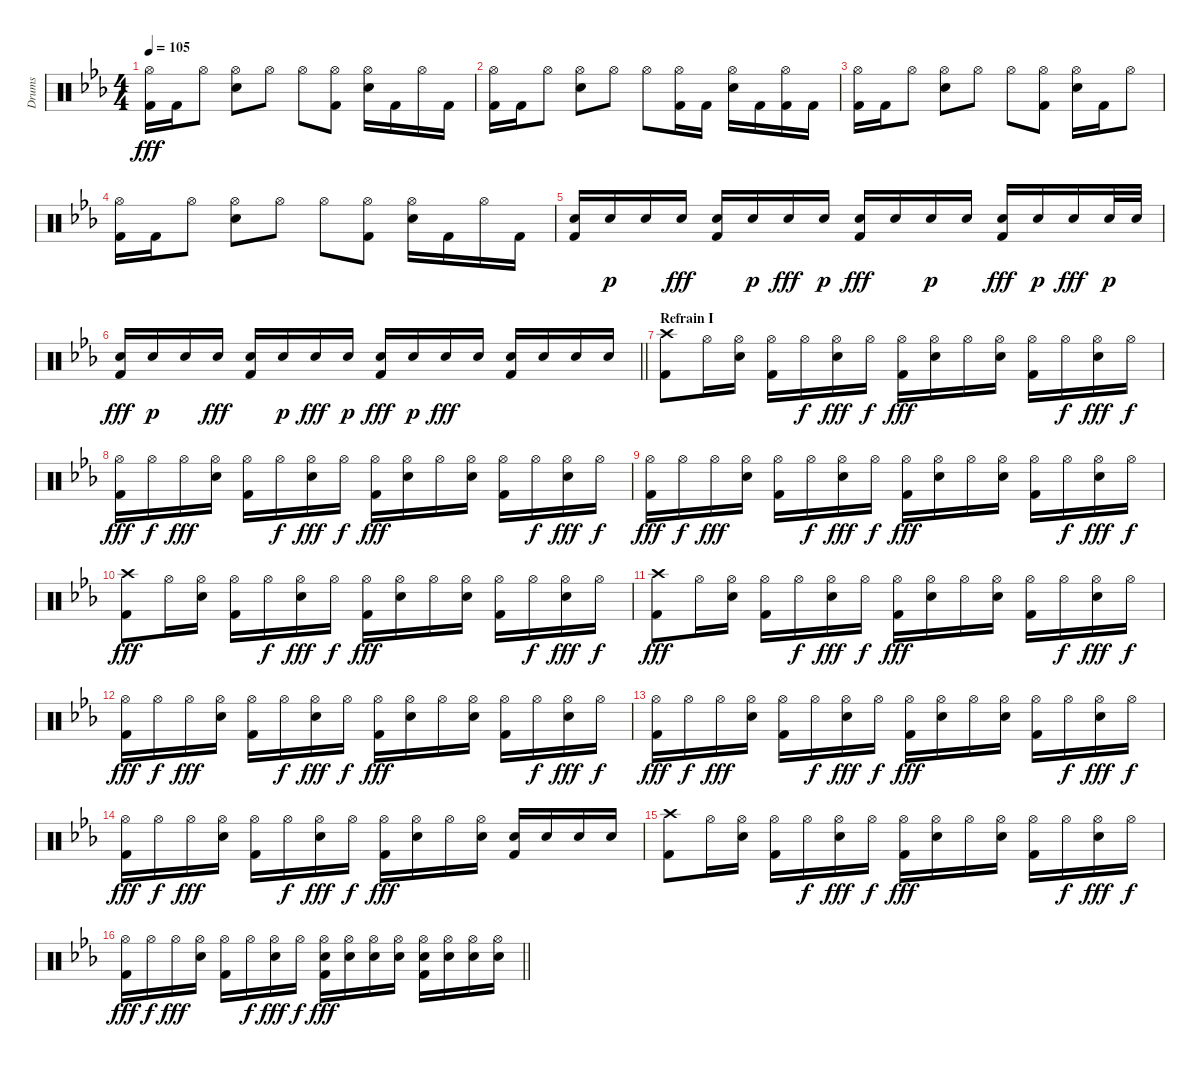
\track ("Drums" "Drums") {instrument percussion}
\staff {score}
\articulation defaults
\ts (4 4)
\tempo 105
\clef neutral
\ks eb
("Hi-Hat (open)" "Kick (hit) 2").16{dy fff} "Kick (hit) 2".16 "Hi-Hat (open)".8 ("Hi-Hat (open)" "Snare (hit) 2").8 "Hi-Hat (open)".8 "Hi-Hat (open)".8 ("Hi-Hat (open)" "Kick (hit) 2").8 ("Hi-Hat (open)" "Snare (hit) 2").16 "Kick (hit) 2".16 "Hi-Hat (open)".16 "Kick (hit) 2".16 |
("Hi-Hat (open)" "Kick (hit) 2").16 "Kick (hit) 2".16 "Hi-Hat (open)".8 ("Hi-Hat (open)" "Snare (hit) 2").8 "Hi-Hat (open)".8 "Hi-Hat (open)".8 ("Hi-Hat (open)" "Kick (hit) 2").16 "Kick (hit) 2".16 ("Hi-Hat (open)" "Snare (hit) 2").16 "Kick (hit) 2".16 ("Hi-Hat (open)" "Kick (hit) 2").16 "Kick (hit) 2".16 |
("Hi-Hat (open)" "Kick (hit) 2").16 "Kick (hit) 2".16 "Hi-Hat (open)".8 ("Hi-Hat (open)" "Snare (hit) 2").8 "Hi-Hat (open)".8 "Hi-Hat (open)".8 ("Hi-Hat (open)" "Kick (hit) 2").8 ("Hi-Hat (open)" "Snare (hit) 2").16 "Kick (hit) 2".16 "Hi-Hat (open)".8 |
("Hi-Hat (open)" "Kick (hit) 2").16 "Kick (hit) 2".16 "Hi-Hat (open)".8 ("Hi-Hat (open)" "Snare (hit) 2").8 "Hi-Hat (open)".8 "Hi-Hat (open)".8 ("Hi-Hat (open)" "Kick (hit) 2").8 ("Hi-Hat (open)" "Snare (hit) 2").16 "Kick (hit) 2".16 "Hi-Hat (open)".16 "Kick (hit) 2".16 |
("Electric Snare (hit)" "Kick (hit) 2").16 "Electric Snare (hit)".16{dy p} "Electric Snare (hit)".16 "Electric Snare (hit)".16{dy fff} ("Electric Snare (hit)" "Kick (hit) 2").16 "Electric Snare (hit)".16{dy p} "Electric Snare (hit)".16{dy fff} "Electric Snare (hit)".16{dy p} ("Electric Snare (hit)" "Kick (hit) 2").16{dy fff} "Electric Snare (hit)".16 "Electric Snare (hit)".16{dy p} "Electric Snare (hit)".16 ("Electric Snare (hit)" "Kick (hit) 2").16{dy fff} "Electric Snare (hit)".16{dy p} "Electric Snare (hit)".16{dy fff} "Electric Snare (hit)".32{dy p} "Electric Snare (hit)".32 |
\barLineRight lightlight
("Electric Snare (hit)" "Kick (hit) 2").16{dy fff} "Electric Snare (hit)".16{dy p} "Electric Snare (hit)".16 "Electric Snare (hit)".16{dy fff} ("Electric Snare (hit)" "Kick (hit) 2").16 "Electric Snare (hit)".16{dy p} "Electric Snare (hit)".16{dy fff} "Electric Snare (hit)".16{dy p} ("Electric Snare (hit)" "Kick (hit) 2").16{dy fff} "Electric Snare (hit)".16{dy p} "Electric Snare (hit)".16{dy fff} "Electric Snare (hit)".16 ("Electric Snare (hit)" "Kick (hit) 2").16 "Electric Snare (hit)".16 "Electric Snare (hit)".16 "Electric Snare (hit)".16 |
\section ("" "Refrain I")
("Crash high (hit)" "Kick (hit) 2").8 "Hi-Hat (open)".16 ("Hi-Hat (open)" "Snare (hit) 2").16 ("Hi-Hat (open)" "Kick (hit) 2").16 "Hi-Hat (open)".16{dy f} ("Hi-Hat (open)" "Snare (hit) 2").16{dy fff} "Hi-Hat (open)".16{dy f} ("Hi-Hat (open)" "Kick (hit) 2").16{dy fff} ("Hi-Hat (open)" "Snare (hit) 2").16 "Hi-Hat (open)".16 ("Hi-Hat (open)" "Snare (hit) 2").16 ("Hi-Hat (open)" "Kick (hit) 2").16 "Hi-Hat (open)".16{dy f} ("Hi-Hat (open)" "Snare (hit) 2").16{dy fff} "Hi-Hat (open)".16{dy f} |
("Hi-Hat (open)" "Kick (hit) 2").16{dy fff} "Hi-Hat (open)".16{dy f} "Hi-Hat (open)".16{dy fff} ("Hi-Hat (open)" "Snare (hit) 2").16 ("Hi-Hat (open)" "Kick (hit) 2").16 "Hi-Hat (open)".16{dy f} ("Hi-Hat (open)" "Snare (hit) 2").16{dy fff} "Hi-Hat (open)".16{dy f} ("Hi-Hat (open)" "Kick (hit) 2").16{dy fff} ("Hi-Hat (open)" "Snare (hit) 2").16 "Hi-Hat (open)".16 ("Hi-Hat (open)" "Snare (hit) 2").16 ("Hi-Hat (open)" "Kick (hit) 2").16 "Hi-Hat (open)".16{dy f} ("Hi-Hat (open)" "Snare (hit) 2").16{dy fff} "Hi-Hat (open)".16{dy f} |
("Hi-Hat (open)" "Kick (hit) 2").16{dy fff} "Hi-Hat (open)".16{dy f} "Hi-Hat (open)".16{dy fff} ("Hi-Hat (open)" "Snare (hit) 2").16 ("Hi-Hat (open)" "Kick (hit) 2").16 "Hi-Hat (open)".16{dy f} ("Hi-Hat (open)" "Snare (hit) 2").16{dy fff} "Hi-Hat (open)".16{dy f} ("Hi-Hat (open)" "Kick (hit) 2").16{dy fff} ("Hi-Hat (open)" "Snare (hit) 2").16 "Hi-Hat (open)".16 ("Hi-Hat (open)" "Snare (hit) 2").16 ("Hi-Hat (open)" "Kick (hit) 2").16 "Hi-Hat (open)".16{dy f} ("Hi-Hat (open)" "Snare (hit) 2").16{dy fff} "Hi-Hat (open)".16{dy f} |
("Crash high (hit)" "Kick (hit) 2").8{dy fff} "Hi-Hat (open)".16 ("Hi-Hat (open)" "Snare (hit) 2").16 ("Hi-Hat (open)" "Kick (hit) 2").16 "Hi-Hat (open)".16{dy f} ("Hi-Hat (open)" "Snare (hit) 2").16{dy fff} "Hi-Hat (open)".16{dy f} ("Hi-Hat (open)" "Kick (hit) 2").16{dy fff} ("Hi-Hat (open)" "Snare (hit) 2").16 "Hi-Hat (open)".16 ("Hi-Hat (open)" "Snare (hit) 2").16 ("Hi-Hat (open)" "Kick (hit) 2").16 "Hi-Hat (open)".16{dy f} ("Hi-Hat (open)" "Snare (hit) 2").16{dy fff} "Hi-Hat (open)".16{dy f} |
("Crash high (hit)" "Kick (hit) 2").8{dy fff} "Hi-Hat (open)".16 ("Hi-Hat (open)" "Snare (hit) 2").16 ("Hi-Hat (open)" "Kick (hit) 2").16 "Hi-Hat (open)".16{dy f} ("Hi-Hat (open)" "Snare (hit) 2").16{dy fff} "Hi-Hat (open)".16{dy f} ("Hi-Hat (open)" "Kick (hit) 2").16{dy fff} ("Hi-Hat (open)" "Snare (hit) 2").16 "Hi-Hat (open)".16 ("Hi-Hat (open)" "Snare (hit) 2").16 ("Hi-Hat (open)" "Kick (hit) 2").16 "Hi-Hat (open)".16{dy f} ("Hi-Hat (open)" "Snare (hit) 2").16{dy fff} "Hi-Hat (open)".16{dy f} |
("Hi-Hat (open)" "Kick (hit) 2").16{dy fff} "Hi-Hat (open)".16{dy f} "Hi-Hat (open)".16{dy fff} ("Hi-Hat (open)" "Snare (hit) 2").16 ("Hi-Hat (open)" "Kick (hit) 2").16 "Hi-Hat (open)".16{dy f} ("Hi-Hat (open)" "Snare (hit) 2").16{dy fff} "Hi-Hat (open)".16{dy f} ("Hi-Hat (open)" "Kick (hit) 2").16{dy fff} ("Hi-Hat (open)" "Snare (hit) 2").16 "Hi-Hat (open)".16 ("Hi-Hat (open)" "Snare (hit) 2").16 ("Hi-Hat (open)" "Kick (hit) 2").16 "Hi-Hat (open)".16{dy f} ("Hi-Hat (open)" "Snare (hit) 2").16{dy fff} "Hi-Hat (open)".16{dy f} |
("Hi-Hat (open)" "Kick (hit) 2").16{dy fff} "Hi-Hat (open)".16{dy f} "Hi-Hat (open)".16{dy fff} ("Hi-Hat (open)" "Snare (hit) 2").16 ("Hi-Hat (open)" "Kick (hit) 2").16 "Hi-Hat (open)".16{dy f} ("Hi-Hat (open)" "Snare (hit) 2").16{dy fff} "Hi-Hat (open)".16{dy f} ("Hi-Hat (open)" "Kick (hit) 2").16{dy fff} ("Hi-Hat (open)" "Snare (hit) 2").16 "Hi-Hat (open)".16 ("Hi-Hat (open)" "Snare (hit) 2").16 ("Hi-Hat (open)" "Kick (hit) 2").16 "Hi-Hat (open)".16{dy f} ("Hi-Hat (open)" "Snare (hit) 2").16{dy fff} "Hi-Hat (open)".16{dy f} |
("Hi-Hat (open)" "Kick (hit) 2").16{dy fff} "Hi-Hat (open)".16{dy f} "Hi-Hat (open)".16{dy fff} ("Hi-Hat (open)" "Snare (hit) 2").16 ("Hi-Hat (open)" "Kick (hit) 2").16 "Hi-Hat (open)".16{dy f} ("Hi-Hat (open)" "Snare (hit) 2").16{dy fff} "Hi-Hat (open)".16{dy f} ("Hi-Hat (open)" "Kick (hit) 2").16{dy fff} ("Hi-Hat (open)" "Snare (hit) 2").16 "Hi-Hat (open)".16 ("Hi-Hat (open)" "Snare (hit) 2").16 ("Snare (hit) 2" "Kick (hit) 2").16 "Snare (hit) 2".16 "Snare (hit) 2".16 "Snare (hit) 2".16 |
("Crash high (hit)" "Kick (hit) 2").8 "Hi-Hat (open)".16 ("Hi-Hat (open)" "Snare (hit) 2").16 ("Hi-Hat (open)" "Kick (hit) 2").16 "Hi-Hat (open)".16{dy f} ("Hi-Hat (open)" "Snare (hit) 2").16{dy fff} "Hi-Hat (open)".16{dy f} ("Hi-Hat (open)" "Kick (hit) 2").16{dy fff} ("Hi-Hat (open)" "Snare (hit) 2").16 "Hi-Hat (open)".16 ("Hi-Hat (open)" "Snare (hit) 2").16 ("Hi-Hat (open)" "Kick (hit) 2").16 "Hi-Hat (open)".16{dy f} ("Hi-Hat (open)" "Snare (hit) 2").16{dy fff} "Hi-Hat (open)".16{dy f} |
\barLineRight lightlight
("Hi-Hat (open)" "Kick (hit) 2").16{dy fff} "Hi-Hat (open)".16{dy f} "Hi-Hat (open)".16{dy fff} ("Hi-Hat (open)" "Snare (hit) 2").16 ("Hi-Hat (open)" "Kick (hit) 2").16 "Hi-Hat (open)".16{dy f} ("Hi-Hat (open)" "Snare (hit) 2").16{dy fff} "Hi-Hat (open)".16{dy f} ("Hi-Hat (open)" "Snare (hit) 2" "Kick (hit) 2").16{dy fff} ("Hi-Hat (open)" "Snare (hit) 2").16 ("Hi-Hat (open)" "Snare (hit) 2").16 ("Hi-Hat (open)" "Snare (hit) 2").16 ("Hi-Hat (open)" "Snare (hit) 2" "Kick (hit) 2").16 ("Hi-Hat (open)" "Snare (hit) 2").16 ("Hi-Hat (open)" "Snare (hit) 2").16 ("Hi-Hat (open)" "Snare (hit) 2").16
